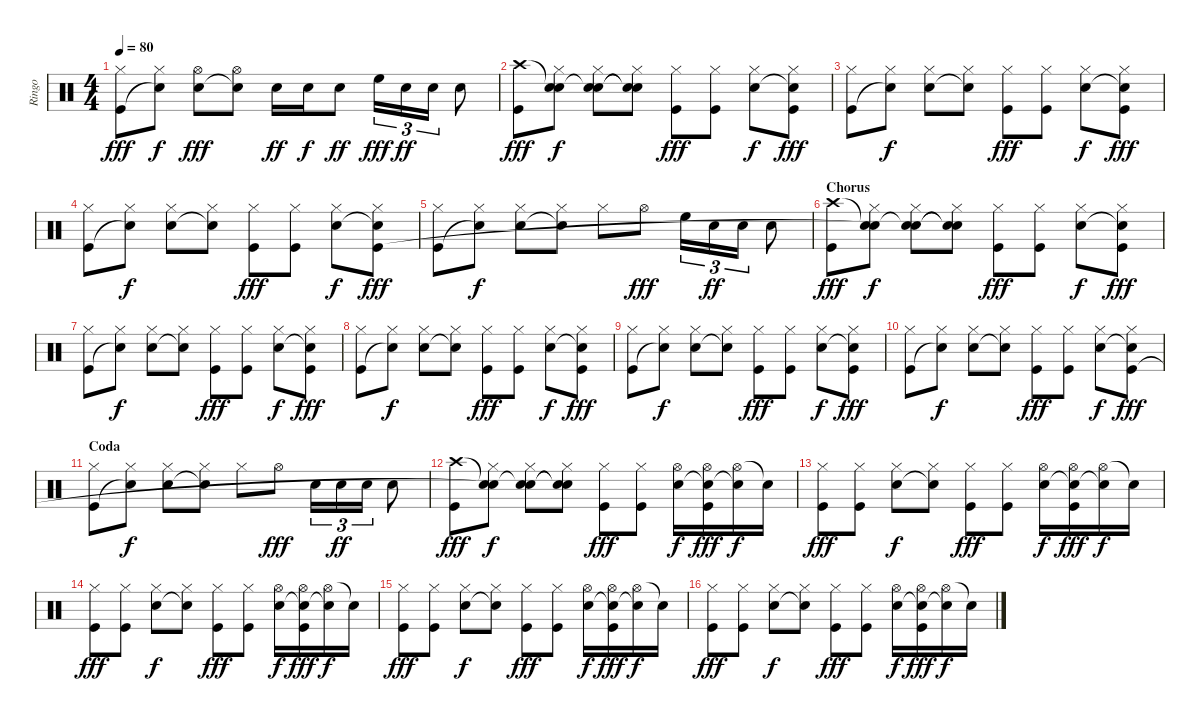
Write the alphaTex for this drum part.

\track ("Ringo" "Ringo") {instrument percussion}
\staff {score}
\articulation defaults
\ts (4 4)
\tempo 80
\clef neutral
\ks c
("Hi-Hat (closed)" "Kick (hit)").8{dy fff} ("Hi-Hat (closed)" "Snare (hit)"{t}).8{dy f} ("Hi-Hat (open)" "Electric Snare (hit)").8{dy fff} ("Hi-Hat (open)" "Snare (hit)"{t}).8 "Electric Snare (hit)".16{dy ff} "Electric Snare (hit)".16{dy f} "Electric Snare (hit)".8{dy ff} "High Floor Tom (hit)".16{tu (3 2) dy fff} "Electric Snare (hit)".16{tu (3 2) dy ff} "Electric Snare (hit)".16{tu (3 2)} "Electric Snare (hit)".8 |
("Crash high (hit)" "Kick (hit)").8{dy fff} ("Snare (hit)"{t} "Hi-Hat (closed)" "Snare (hit)"{t}).8{dy f} ("Snare (hit)"{t} "Hi-Hat (closed)" "Electric Snare (hit)").8 ("Snare (hit)"{t} "Hi-Hat (closed)" "Snare (hit)"{t}).8 ("Hi-Hat (closed)" "Kick (hit)").8{dy fff} ("Hi-Hat (closed)" "Kick (hit)").8 ("Hi-Hat (closed)" "Electric Snare (hit)").8{dy f} ("Hi-Hat (closed)" "Snare (hit)"{t} "Kick (hit)").8{dy fff} |
("Hi-Hat (closed)" "Kick (hit)").8 ("Hi-Hat (closed)" "Snare (hit)"{t}).8{dy f} ("Hi-Hat (closed)" "Electric Snare (hit)").8 ("Hi-Hat (closed)" "Snare (hit)"{t}).8 ("Hi-Hat (closed)" "Kick (hit)").8{dy fff} ("Hi-Hat (closed)" "Kick (hit)").8 ("Hi-Hat (closed)" "Electric Snare (hit)").8{dy f} ("Hi-Hat (closed)" "Snare (hit)"{t} "Kick (hit)").8{dy fff} |
("Hi-Hat (closed)" "Kick (hit)").8 ("Hi-Hat (closed)" "Snare (hit)"{t}).8{dy f} ("Hi-Hat (closed)" "Electric Snare (hit)").8 ("Hi-Hat (closed)" "Snare (hit)"{t}).8 ("Hi-Hat (closed)" "Kick (hit)").8{dy fff} ("Hi-Hat (closed)" "Kick (hit)").8 ("Hi-Hat (closed)" "Electric Snare (hit)").8{dy f} ("Hi-Hat (closed)" "Snare (hit)"{t} "Kick (hit)").8{dy fff} |
("Hi-Hat (closed)" "Kick (hit)").8 ("Hi-Hat (closed)" "Snare (hit)"{t}).8{dy f} ("Hi-Hat (closed)" "Electric Snare (hit)").8 ("Hi-Hat (closed)" "Snare (hit)"{t}).8 "Hi-Hat (closed)".8 "Hi-Hat (open)".8{dy fff} "High Floor Tom (hit)".16{tu (3 2)} "Electric Snare (hit)".16{tu (3 2) dy ff} "Electric Snare (hit)".16{tu (3 2)} "Electric Snare (hit)".8 |
\section ("" "Chorus")
("Crash high (hit)" "Kick (hit)").8{dy fff} ("Snare (hit)"{t} "Hi-Hat (closed)" "Snare (hit)"{t}).8{dy f} ("Snare (hit)"{t} "Hi-Hat (closed)" "Electric Snare (hit)").8 ("Snare (hit)"{t} "Hi-Hat (closed)" "Snare (hit)"{t}).8 ("Hi-Hat (closed)" "Kick (hit)").8{dy fff} ("Hi-Hat (closed)" "Kick (hit)").8 ("Hi-Hat (closed)" "Electric Snare (hit)").8{dy f} ("Hi-Hat (closed)" "Snare (hit)"{t} "Kick (hit)").8{dy fff} |
("Hi-Hat (closed)" "Kick (hit)").8 ("Hi-Hat (closed)" "Snare (hit)"{t}).8{dy f} ("Hi-Hat (closed)" "Electric Snare (hit)").8 ("Hi-Hat (closed)" "Snare (hit)"{t}).8 ("Hi-Hat (closed)" "Kick (hit)").8{dy fff} ("Hi-Hat (closed)" "Kick (hit)").8 ("Hi-Hat (closed)" "Electric Snare (hit)").8{dy f} ("Hi-Hat (closed)" "Snare (hit)"{t} "Kick (hit)").8{dy fff} |
("Hi-Hat (closed)" "Kick (hit)").8 ("Hi-Hat (closed)" "Snare (hit)"{t}).8{dy f} ("Hi-Hat (closed)" "Electric Snare (hit)").8 ("Hi-Hat (closed)" "Snare (hit)"{t}).8 ("Hi-Hat (closed)" "Kick (hit)").8{dy fff} ("Hi-Hat (closed)" "Kick (hit)").8 ("Hi-Hat (closed)" "Electric Snare (hit)").8{dy f} ("Hi-Hat (closed)" "Snare (hit)"{t} "Kick (hit)").8{dy fff} |
("Hi-Hat (closed)" "Kick (hit)").8 ("Hi-Hat (closed)" "Snare (hit)"{t}).8{dy f} ("Hi-Hat (closed)" "Electric Snare (hit)").8 ("Hi-Hat (closed)" "Snare (hit)"{t}).8 ("Hi-Hat (closed)" "Kick (hit)").8{dy fff} ("Hi-Hat (closed)" "Kick (hit)").8 ("Hi-Hat (closed)" "Electric Snare (hit)").8{dy f} ("Hi-Hat (closed)" "Snare (hit)"{t} "Kick (hit)").8{dy fff} |
("Hi-Hat (closed)" "Kick (hit)").8 ("Hi-Hat (closed)" "Snare (hit)"{t}).8{dy f} ("Hi-Hat (closed)" "Electric Snare (hit)").8 ("Hi-Hat (closed)" "Snare (hit)"{t}).8 ("Hi-Hat (closed)" "Kick (hit)").8{dy fff} ("Hi-Hat (closed)" "Kick (hit)").8 ("Hi-Hat (closed)" "Electric Snare (hit)").8{dy f} ("Hi-Hat (closed)" "Snare (hit)"{t} "Kick (hit)").8{dy fff} |
\section ("" "Coda")
("Hi-Hat (closed)" "Kick (hit)").8 ("Hi-Hat (closed)" "Snare (hit)"{t}).8{dy f} ("Hi-Hat (closed)" "Electric Snare (hit)").8 ("Hi-Hat (closed)" "Snare (hit)"{t}).8 "Hi-Hat (closed)".8 "Hi-Hat (open)".8{dy fff} "Electric Snare (hit)".16{tu (3 2)} "Electric Snare (hit)".16{tu (3 2) dy ff} "Electric Snare (hit)".16{tu (3 2)} "Electric Snare (hit)".8 |
("Crash high (hit)" "Kick (hit)").8{dy fff} ("Snare (hit)"{t} "Hi-Hat (closed)" "Snare (hit)"{t}).8{dy f} ("Snare (hit)"{t} "Hi-Hat (closed)" "Electric Snare (hit)").8 ("Snare (hit)"{t} "Hi-Hat (closed)" "Snare (hit)"{t}).8 ("Hi-Hat (closed)" "Kick (hit)").8{dy fff} ("Hi-Hat (closed)" "Kick (hit)").8 ("Hi-Hat (open)" "Electric Snare (hit)").16{dy f} ("Hi-Hat (open)" "Snare (hit)"{t} "Kick (hit)").16{dy fff} ("Hi-Hat (open)" "Snare (hit)"{t}).16{dy f} "Snare (hit)"{t}.16 |
("Hi-Hat (closed)" "Kick (hit)").8{dy fff} ("Hi-Hat (closed)" "Kick (hit)").8 ("Hi-Hat (closed)" "Electric Snare (hit)").8{dy f} ("Hi-Hat (closed)" "Snare (hit)"{t}).8 ("Hi-Hat (closed)" "Kick (hit)").8{dy fff} ("Hi-Hat (closed)" "Kick (hit)").8 ("Hi-Hat (open)" "Electric Snare (hit)").16{dy f} ("Hi-Hat (open)" "Snare (hit)"{t} "Kick (hit)").16{dy fff} ("Hi-Hat (open)" "Snare (hit)"{t}).16{dy f} "Snare (hit)"{t}.16 |
("Hi-Hat (closed)" "Kick (hit)").8{dy fff} ("Hi-Hat (closed)" "Kick (hit)").8 ("Hi-Hat (closed)" "Electric Snare (hit)").8{dy f} ("Hi-Hat (closed)" "Snare (hit)"{t}).8 ("Hi-Hat (closed)" "Kick (hit)").8{dy fff} ("Hi-Hat (closed)" "Kick (hit)").8 ("Hi-Hat (open)" "Electric Snare (hit)").16{dy f} ("Hi-Hat (open)" "Snare (hit)"{t} "Kick (hit)").16{dy fff} ("Hi-Hat (open)" "Snare (hit)"{t}).16{dy f} "Snare (hit)"{t}.16 |
("Hi-Hat (closed)" "Kick (hit)").8{dy fff} ("Hi-Hat (closed)" "Kick (hit)").8 ("Hi-Hat (closed)" "Electric Snare (hit)").8{dy f} ("Hi-Hat (closed)" "Snare (hit)"{t}).8 ("Hi-Hat (closed)" "Kick (hit)").8{dy fff} ("Hi-Hat (closed)" "Kick (hit)").8 ("Hi-Hat (open)" "Electric Snare (hit)").16{dy f} ("Hi-Hat (open)" "Snare (hit)"{t} "Kick (hit)").16{dy fff} ("Hi-Hat (open)" "Snare (hit)"{t}).16{dy f} "Snare (hit)"{t}.16 |
("Hi-Hat (closed)" "Kick (hit)").8{dy fff} ("Hi-Hat (closed)" "Kick (hit)").8 ("Hi-Hat (closed)" "Electric Snare (hit)").8{dy f} ("Hi-Hat (closed)" "Snare (hit)"{t}).8 ("Hi-Hat (closed)" "Kick (hit)").8{dy fff} ("Hi-Hat (closed)" "Kick (hit)").8 ("Hi-Hat (open)" "Electric Snare (hit)").16{dy f} ("Hi-Hat (open)" "Snare (hit)"{t} "Kick (hit)").16{dy fff} ("Hi-Hat (open)" "Snare (hit)"{t}).16{dy f} "Snare (hit)"{t}.16
